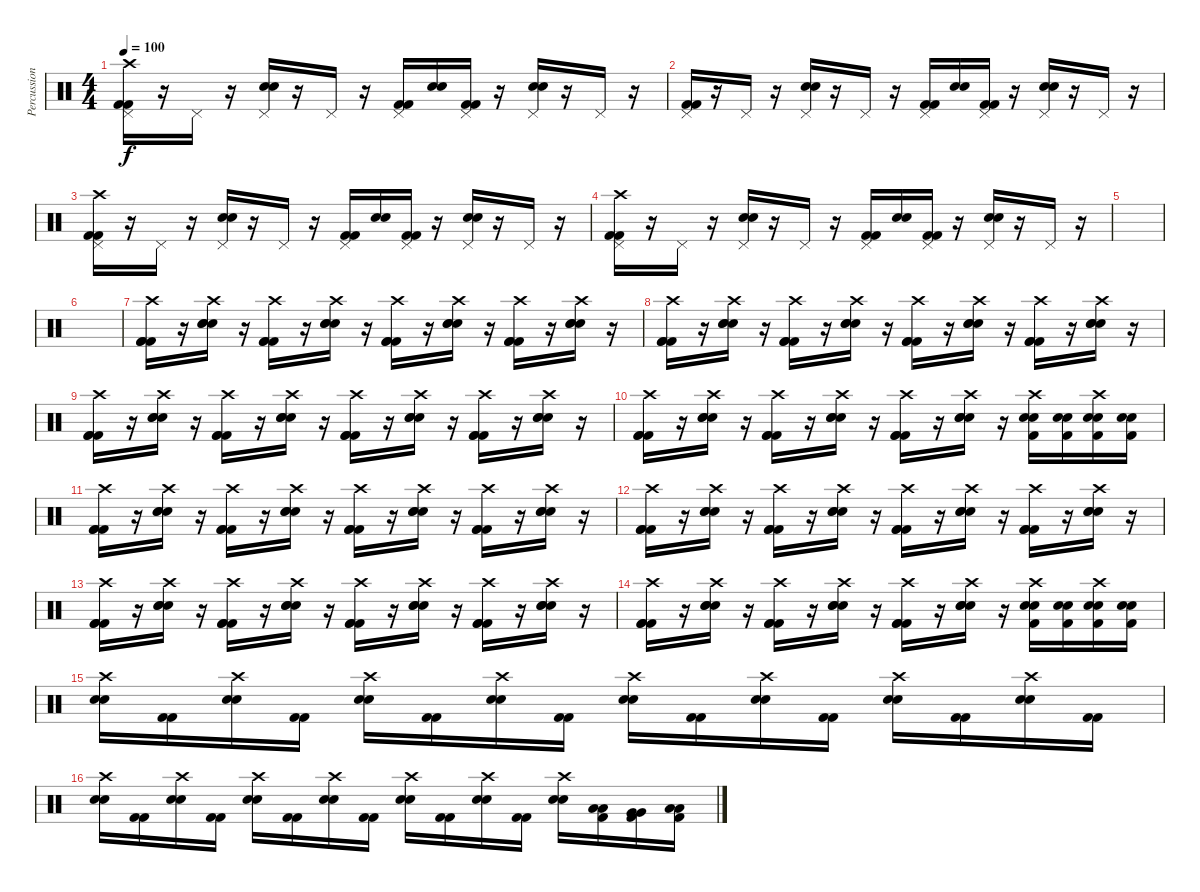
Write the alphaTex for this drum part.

\track ("Percussions" "Percussion") {instrument percussion}
\staff {score}
\articulation defaults
\ts (4 4)
\tempo 100
\clef neutral
\ks c
("Crash high (hit)" "Pedal Hi-Hat (hit)" "Kick (hit) 2" "Kick (hit) 2").16{dy f} r.16 "Pedal Hi-Hat (hit)".16 r.16 ("Pedal Hi-Hat (hit)" "Electric Snare (hit)" "Electric Snare (hit)").16 r.16 "Pedal Hi-Hat (hit)".16 r.16 ("Pedal Hi-Hat (hit)" "Kick (hit) 2" "Kick (hit) 2").16 ("Electric Snare (hit)" "Electric Snare (hit)").16 ("Pedal Hi-Hat (hit)" "Kick (hit) 2" "Kick (hit) 2").16 r.16 ("Pedal Hi-Hat (hit)" "Electric Snare (hit)" "Electric Snare (hit)").16 r.16 "Pedal Hi-Hat (hit)".16 r.16 |
("Pedal Hi-Hat (hit)" "Kick (hit) 2" "Kick (hit) 2").16 r.16 "Pedal Hi-Hat (hit)".16 r.16 ("Pedal Hi-Hat (hit)" "Electric Snare (hit)" "Electric Snare (hit)").16 r.16 "Pedal Hi-Hat (hit)".16 r.16 ("Pedal Hi-Hat (hit)" "Kick (hit) 2" "Kick (hit) 2").16 ("Electric Snare (hit)" "Electric Snare (hit)").16 ("Pedal Hi-Hat (hit)" "Kick (hit) 2" "Kick (hit) 2").16 r.16 ("Pedal Hi-Hat (hit)" "Electric Snare (hit)" "Electric Snare (hit)").16 r.16 "Pedal Hi-Hat (hit)".16 r.16 |
("Crash high (hit)" "Pedal Hi-Hat (hit)" "Kick (hit) 2" "Kick (hit) 2").16 r.16 "Pedal Hi-Hat (hit)".16 r.16 ("Pedal Hi-Hat (hit)" "Electric Snare (hit)" "Electric Snare (hit)").16 r.16 "Pedal Hi-Hat (hit)".16 r.16 ("Pedal Hi-Hat (hit)" "Kick (hit) 2" "Kick (hit) 2").16 ("Electric Snare (hit)" "Electric Snare (hit)").16 ("Pedal Hi-Hat (hit)" "Kick (hit) 2" "Kick (hit) 2").16 r.16 ("Pedal Hi-Hat (hit)" "Electric Snare (hit)" "Electric Snare (hit)").16 r.16 "Pedal Hi-Hat (hit)".16 r.16 |
("Crash high (hit)" "Pedal Hi-Hat (hit)" "Kick (hit) 2" "Kick (hit) 2").16 r.16 "Pedal Hi-Hat (hit)".16 r.16 ("Pedal Hi-Hat (hit)" "Electric Snare (hit)" "Electric Snare (hit)").16 r.16 "Pedal Hi-Hat (hit)".16 r.16 ("Pedal Hi-Hat (hit)" "Kick (hit) 2" "Kick (hit) 2").16 ("Electric Snare (hit)" "Electric Snare (hit)").16 ("Pedal Hi-Hat (hit)" "Kick (hit) 2" "Kick (hit) 2").16 r.16 ("Pedal Hi-Hat (hit)" "Electric Snare (hit)" "Electric Snare (hit)").16 r.16 "Pedal Hi-Hat (hit)".16 r.16 |
|
|
("Crash high (hit)" "Kick (hit) 2" "Kick (hit) 2" "Kick (hit) 2").16 r.16 ("Crash high (hit)" "Electric Snare (hit)" "Electric Snare (hit)" "Electric Snare (hit)").16 r.16 ("Crash high (hit)" "Kick (hit) 2" "Kick (hit) 2" "Kick (hit) 2").16 r.16 ("Crash high (hit)" "Electric Snare (hit)" "Electric Snare (hit)" "Electric Snare (hit)").16 r.16 ("Crash high (hit)" "Kick (hit) 2" "Kick (hit) 2" "Kick (hit) 2").16 r.16 ("Crash high (hit)" "Electric Snare (hit)" "Electric Snare (hit)" "Electric Snare (hit)").16 r.16 ("Crash high (hit)" "Kick (hit) 2" "Kick (hit) 2" "Kick (hit) 2").16 r.16 ("Crash high (hit)" "Electric Snare (hit)" "Electric Snare (hit)" "Electric Snare (hit)").16 r.16 |
("Crash high (hit)" "Kick (hit) 2" "Kick (hit) 2" "Kick (hit) 2").16 r.16 ("Crash high (hit)" "Electric Snare (hit)" "Electric Snare (hit)" "Electric Snare (hit)").16 r.16 ("Crash high (hit)" "Kick (hit) 2" "Kick (hit) 2" "Kick (hit) 2").16 r.16 ("Crash high (hit)" "Electric Snare (hit)" "Electric Snare (hit)" "Electric Snare (hit)").16 r.16 ("Crash high (hit)" "Kick (hit) 2" "Kick (hit) 2" "Kick (hit) 2").16 r.16 ("Crash high (hit)" "Electric Snare (hit)" "Electric Snare (hit)" "Electric Snare (hit)").16 r.16 ("Crash high (hit)" "Kick (hit) 2" "Kick (hit) 2" "Kick (hit) 2").16 r.16 ("Crash high (hit)" "Electric Snare (hit)" "Electric Snare (hit)" "Electric Snare (hit)").16 r.16 |
("Crash high (hit)" "Kick (hit) 2" "Kick (hit) 2" "Kick (hit) 2").16 r.16 ("Crash high (hit)" "Electric Snare (hit)" "Electric Snare (hit)" "Electric Snare (hit)").16 r.16 ("Crash high (hit)" "Kick (hit) 2" "Kick (hit) 2" "Kick (hit) 2").16 r.16 ("Crash high (hit)" "Electric Snare (hit)" "Electric Snare (hit)" "Electric Snare (hit)").16 r.16 ("Crash high (hit)" "Kick (hit) 2" "Kick (hit) 2" "Kick (hit) 2").16 r.16 ("Crash high (hit)" "Electric Snare (hit)" "Electric Snare (hit)" "Electric Snare (hit)").16 r.16 ("Crash high (hit)" "Kick (hit) 2" "Kick (hit) 2" "Kick (hit) 2").16 r.16 ("Crash high (hit)" "Electric Snare (hit)" "Electric Snare (hit)" "Electric Snare (hit)").16 r.16 |
("Crash high (hit)" "Kick (hit) 2" "Kick (hit) 2" "Kick (hit) 2").16 r.16 ("Crash high (hit)" "Electric Snare (hit)" "Electric Snare (hit)" "Electric Snare (hit)").16 r.16 ("Crash high (hit)" "Kick (hit) 2" "Kick (hit) 2" "Kick (hit) 2").16 r.16 ("Crash high (hit)" "Electric Snare (hit)" "Electric Snare (hit)" "Electric Snare (hit)").16 r.16 ("Crash high (hit)" "Kick (hit) 2" "Kick (hit) 2" "Kick (hit) 2").16 r.16 ("Crash high (hit)" "Electric Snare (hit)" "Electric Snare (hit)" "Electric Snare (hit)").16 r.16 ("Crash high (hit)" "Electric Snare (hit)" "Electric Snare (hit)" "Kick (hit) 2").16 ("Electric Snare (hit)" "Electric Snare (hit)" "Kick (hit) 2").16 ("Crash high (hit)" "Electric Snare (hit)" "Electric Snare (hit)" "Kick (hit) 2").16 ("Electric Snare (hit)" "Electric Snare (hit)" "Kick (hit) 2").16 |
("Crash high (hit)" "Kick (hit) 2" "Kick (hit) 2" "Kick (hit) 2").16 r.16 ("Crash high (hit)" "Electric Snare (hit)" "Electric Snare (hit)" "Electric Snare (hit)").16 r.16 ("Crash high (hit)" "Kick (hit) 2" "Kick (hit) 2" "Kick (hit) 2").16 r.16 ("Crash high (hit)" "Electric Snare (hit)" "Electric Snare (hit)" "Electric Snare (hit)").16 r.16 ("Crash high (hit)" "Kick (hit) 2" "Kick (hit) 2" "Kick (hit) 2").16 r.16 ("Crash high (hit)" "Electric Snare (hit)" "Electric Snare (hit)" "Electric Snare (hit)").16 r.16 ("Crash high (hit)" "Kick (hit) 2" "Kick (hit) 2" "Kick (hit) 2").16 r.16 ("Crash high (hit)" "Electric Snare (hit)" "Electric Snare (hit)" "Electric Snare (hit)").16 r.16 |
("Crash high (hit)" "Kick (hit) 2" "Kick (hit) 2" "Kick (hit) 2").16 r.16 ("Crash high (hit)" "Electric Snare (hit)" "Electric Snare (hit)" "Electric Snare (hit)").16 r.16 ("Crash high (hit)" "Kick (hit) 2" "Kick (hit) 2" "Kick (hit) 2").16 r.16 ("Crash high (hit)" "Electric Snare (hit)" "Electric Snare (hit)" "Electric Snare (hit)").16 r.16 ("Crash high (hit)" "Kick (hit) 2" "Kick (hit) 2" "Kick (hit) 2").16 r.16 ("Crash high (hit)" "Electric Snare (hit)" "Electric Snare (hit)" "Electric Snare (hit)").16 r.16 ("Crash high (hit)" "Kick (hit) 2" "Kick (hit) 2" "Kick (hit) 2").16 r.16 ("Crash high (hit)" "Electric Snare (hit)" "Electric Snare (hit)" "Electric Snare (hit)").16 r.16 |
("Crash high (hit)" "Kick (hit) 2" "Kick (hit) 2" "Kick (hit) 2").16 r.16 ("Crash high (hit)" "Electric Snare (hit)" "Electric Snare (hit)" "Electric Snare (hit)").16 r.16 ("Crash high (hit)" "Kick (hit) 2" "Kick (hit) 2" "Kick (hit) 2").16 r.16 ("Crash high (hit)" "Electric Snare (hit)" "Electric Snare (hit)" "Electric Snare (hit)").16 r.16 ("Crash high (hit)" "Kick (hit) 2" "Kick (hit) 2" "Kick (hit) 2").16 r.16 ("Crash high (hit)" "Electric Snare (hit)" "Electric Snare (hit)" "Electric Snare (hit)").16 r.16 ("Crash high (hit)" "Kick (hit) 2" "Kick (hit) 2" "Kick (hit) 2").16 r.16 ("Crash high (hit)" "Electric Snare (hit)" "Electric Snare (hit)" "Electric Snare (hit)").16 r.16 |
("Crash high (hit)" "Kick (hit) 2" "Kick (hit) 2" "Kick (hit) 2").16 r.16 ("Crash high (hit)" "Electric Snare (hit)" "Electric Snare (hit)" "Electric Snare (hit)").16 r.16 ("Crash high (hit)" "Kick (hit) 2" "Kick (hit) 2" "Kick (hit) 2").16 r.16 ("Crash high (hit)" "Electric Snare (hit)" "Electric Snare (hit)" "Electric Snare (hit)").16 r.16 ("Crash high (hit)" "Kick (hit) 2" "Kick (hit) 2" "Kick (hit) 2").16 r.16 ("Crash high (hit)" "Electric Snare (hit)" "Electric Snare (hit)" "Electric Snare (hit)").16 r.16 ("Crash high (hit)" "Electric Snare (hit)" "Electric Snare (hit)" "Kick (hit) 2").16 ("Electric Snare (hit)" "Electric Snare (hit)" "Kick (hit) 2").16 ("Crash high (hit)" "Electric Snare (hit)" "Electric Snare (hit)" "Kick (hit) 2").16 ("Electric Snare (hit)" "Electric Snare (hit)" "Kick (hit) 2").16 |
("Crash high (hit)" "Electric Snare (hit)" "Electric Snare (hit)").16 ("Kick (hit) 2" "Kick (hit) 2").16 ("Crash high (hit)" "Electric Snare (hit)" "Electric Snare (hit)").16 ("Kick (hit) 2" "Kick (hit) 2").16 ("Crash high (hit)" "Electric Snare (hit)" "Electric Snare (hit)").16 ("Kick (hit) 2" "Kick (hit) 2").16 ("Crash high (hit)" "Electric Snare (hit)" "Electric Snare (hit)").16 ("Kick (hit) 2" "Kick (hit) 2").16 ("Crash high (hit)" "Electric Snare (hit)" "Electric Snare (hit)").16 ("Kick (hit) 2" "Kick (hit) 2").16 ("Crash high (hit)" "Electric Snare (hit)" "Electric Snare (hit)").16 ("Kick (hit) 2" "Kick (hit) 2").16 ("Crash high (hit)" "Electric Snare (hit)" "Electric Snare (hit)").16 ("Kick (hit) 2" "Kick (hit) 2").16 ("Crash high (hit)" "Electric Snare (hit)" "Electric Snare (hit)").16 ("Kick (hit) 2" "Kick (hit) 2").16 |
("Crash high (hit)" "Electric Snare (hit)" "Electric Snare (hit)").16 ("Kick (hit) 2" "Kick (hit) 2").16 ("Crash high (hit)" "Electric Snare (hit)" "Electric Snare (hit)").16 ("Kick (hit) 2" "Kick (hit) 2").16 ("Crash high (hit)" "Electric Snare (hit)" "Electric Snare (hit)").16 ("Kick (hit) 2" "Kick (hit) 2").16 ("Crash high (hit)" "Electric Snare (hit)" "Electric Snare (hit)").16 ("Kick (hit) 2" "Kick (hit) 2").16 ("Crash high (hit)" "Electric Snare (hit)" "Electric Snare (hit)").16 ("Kick (hit) 2" "Kick (hit) 2").16 ("Crash high (hit)" "Electric Snare (hit)" "Electric Snare (hit)").16 ("Kick (hit) 2" "Kick (hit) 2").16 ("Crash high (hit)" "Electric Snare (hit)" "Electric Snare (hit)").16 ("Low Tom (hit)" "Low Tom (hit)" "Kick (hit) 2").16 ("Very Low Tom (hit)" "Very Low Tom (hit)" "Kick (hit) 2").16 ("Low Floor Tom (hit)" "Low Floor Tom (hit)" "Kick (hit) 2").16
